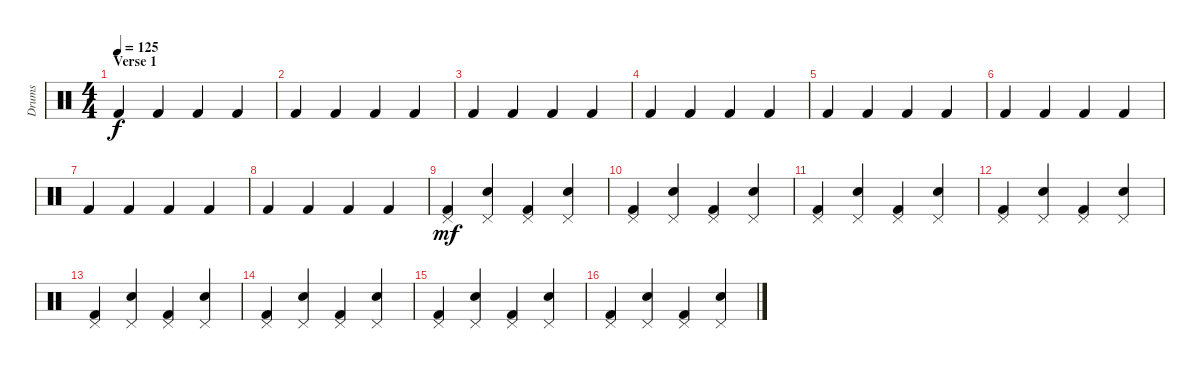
\track ("Drums" "Drums") {instrument percussion}
\staff {score}
\articulation defaults
\ts (4 4)
\section ("" "Verse 1")
\tempo 125
\clef neutral
\ks c "Kick (hit) 2".4{dy f} "Kick (hit) 2".4 "Kick (hit) 2".4 "Kick (hit) 2".4
|
"Kick (hit) 2".4 "Kick (hit) 2".4 "Kick (hit) 2".4 "Kick (hit) 2".4 |
"Kick (hit) 2".4 "Kick (hit) 2".4 "Kick (hit) 2".4 "Kick (hit) 2".4 |
"Kick (hit) 2".4 "Kick (hit) 2".4 "Kick (hit) 2".4 "Kick (hit) 2".4 |
"Kick (hit) 2".4 "Kick (hit) 2".4 "Kick (hit) 2".4 "Kick (hit) 2".4 |
"Kick (hit) 2".4 "Kick (hit) 2".4 "Kick (hit) 2".4 "Kick (hit) 2".4 |
"Kick (hit) 2".4 "Kick (hit) 2".4 "Kick (hit) 2".4 "Kick (hit) 2".4 |
"Kick (hit) 2".4 "Kick (hit) 2".4 "Kick (hit) 2".4 "Kick (hit) 2".4 |
("Pedal Hi-Hat (hit)" "Kick (hit) 2").4{dy mf} ("Pedal Hi-Hat (hit)" "Electric Snare (hit)").4 ("Pedal Hi-Hat (hit)" "Kick (hit) 2").4 ("Pedal Hi-Hat (hit)" "Electric Snare (hit)").4 |
("Pedal Hi-Hat (hit)" "Kick (hit) 2").4 ("Pedal Hi-Hat (hit)" "Electric Snare (hit)").4 ("Pedal Hi-Hat (hit)" "Kick (hit) 2").4 ("Pedal Hi-Hat (hit)" "Electric Snare (hit)").4 |
("Pedal Hi-Hat (hit)" "Kick (hit) 2").4 ("Pedal Hi-Hat (hit)" "Electric Snare (hit)").4 ("Pedal Hi-Hat (hit)" "Kick (hit) 2").4 ("Pedal Hi-Hat (hit)" "Electric Snare (hit)").4 |
("Pedal Hi-Hat (hit)" "Kick (hit) 2").4 ("Pedal Hi-Hat (hit)" "Electric Snare (hit)").4 ("Pedal Hi-Hat (hit)" "Kick (hit) 2").4 ("Pedal Hi-Hat (hit)" "Electric Snare (hit)").4 |
("Pedal Hi-Hat (hit)" "Kick (hit) 2").4 ("Pedal Hi-Hat (hit)" "Electric Snare (hit)").4 ("Pedal Hi-Hat (hit)" "Kick (hit) 2").4 ("Pedal Hi-Hat (hit)" "Electric Snare (hit)").4 |
("Pedal Hi-Hat (hit)" "Kick (hit) 2").4 ("Pedal Hi-Hat (hit)" "Electric Snare (hit)").4 ("Pedal Hi-Hat (hit)" "Kick (hit) 2").4 ("Pedal Hi-Hat (hit)" "Electric Snare (hit)").4 |
("Pedal Hi-Hat (hit)" "Kick (hit) 2").4 ("Pedal Hi-Hat (hit)" "Electric Snare (hit)").4 ("Pedal Hi-Hat (hit)" "Kick (hit) 2").4 ("Pedal Hi-Hat (hit)" "Electric Snare (hit)").4 |
("Pedal Hi-Hat (hit)" "Kick (hit) 2").4 ("Pedal Hi-Hat (hit)" "Electric Snare (hit)").4 ("Pedal Hi-Hat (hit)" "Kick (hit) 2").4 ("Pedal Hi-Hat (hit)" "Electric Snare (hit)").4
